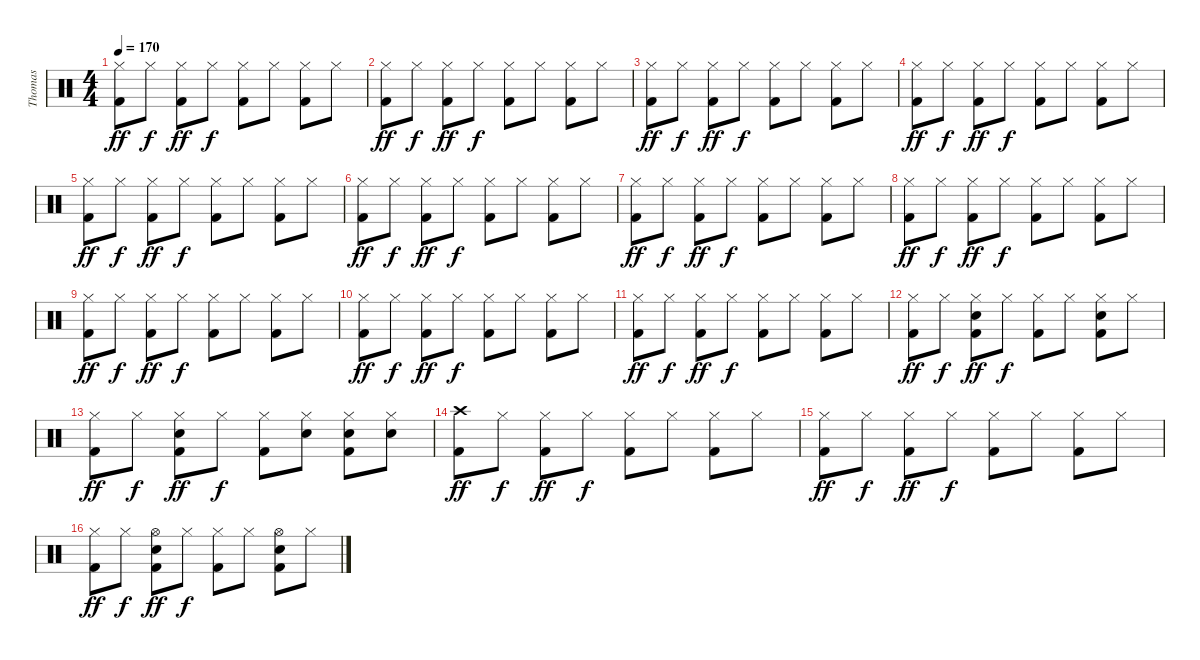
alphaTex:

\track ("Thomas" "Thomas") {instrument percussion}
\staff {score}
\articulation defaults
\ts (4 4)
\tempo 170
\clef neutral
\ks c
("Hi-Hat (closed)" "Kick (hit) 2").8{dy ff} "Hi-Hat (closed)".8{dy f} ("Hi-Hat (closed)" "Kick (hit) 2").8{dy ff} "Hi-Hat (closed)".8{dy f} ("Hi-Hat (closed)" "Kick (hit) 2").8 "Hi-Hat (closed)".8 ("Hi-Hat (closed)" "Kick (hit) 2").8 "Hi-Hat (closed)".8 |
("Hi-Hat (closed)" "Kick (hit) 2").8{dy ff} "Hi-Hat (closed)".8{dy f} ("Hi-Hat (closed)" "Kick (hit) 2").8{dy ff} "Hi-Hat (closed)".8{dy f} ("Hi-Hat (closed)" "Kick (hit) 2").8 "Hi-Hat (closed)".8 ("Hi-Hat (closed)" "Kick (hit) 2").8 "Hi-Hat (closed)".8 |
("Hi-Hat (closed)" "Kick (hit) 2").8{dy ff} "Hi-Hat (closed)".8{dy f} ("Hi-Hat (closed)" "Kick (hit) 2").8{dy ff} "Hi-Hat (closed)".8{dy f} ("Hi-Hat (closed)" "Kick (hit) 2").8 "Hi-Hat (closed)".8 ("Hi-Hat (closed)" "Kick (hit) 2").8 "Hi-Hat (closed)".8 |
("Hi-Hat (closed)" "Kick (hit) 2").8{dy ff} "Hi-Hat (closed)".8{dy f} ("Hi-Hat (closed)" "Kick (hit) 2").8{dy ff} "Hi-Hat (closed)".8{dy f} ("Hi-Hat (closed)" "Kick (hit) 2").8 "Hi-Hat (closed)".8 ("Hi-Hat (closed)" "Kick (hit) 2").8 "Hi-Hat (closed)".8 |
("Hi-Hat (closed)" "Kick (hit) 2").8{dy ff} "Hi-Hat (closed)".8{dy f} ("Hi-Hat (closed)" "Kick (hit) 2").8{dy ff} "Hi-Hat (closed)".8{dy f} ("Hi-Hat (closed)" "Kick (hit) 2").8 "Hi-Hat (closed)".8 ("Hi-Hat (closed)" "Kick (hit) 2").8 "Hi-Hat (closed)".8 |
("Hi-Hat (closed)" "Kick (hit) 2").8{dy ff} "Hi-Hat (closed)".8{dy f} ("Hi-Hat (closed)" "Kick (hit) 2").8{dy ff} "Hi-Hat (closed)".8{dy f} ("Hi-Hat (closed)" "Kick (hit) 2").8 "Hi-Hat (closed)".8 ("Hi-Hat (closed)" "Kick (hit) 2").8 "Hi-Hat (closed)".8 |
("Hi-Hat (closed)" "Kick (hit) 2").8{dy ff} "Hi-Hat (closed)".8{dy f} ("Hi-Hat (closed)" "Kick (hit) 2").8{dy ff} "Hi-Hat (closed)".8{dy f} ("Hi-Hat (closed)" "Kick (hit) 2").8 "Hi-Hat (closed)".8 ("Hi-Hat (closed)" "Kick (hit) 2").8 "Hi-Hat (closed)".8 |
("Hi-Hat (closed)" "Kick (hit) 2").8{dy ff} "Hi-Hat (closed)".8{dy f} ("Hi-Hat (closed)" "Kick (hit) 2").8{dy ff} "Hi-Hat (closed)".8{dy f} ("Hi-Hat (closed)" "Kick (hit) 2").8 "Hi-Hat (closed)".8 ("Hi-Hat (closed)" "Kick (hit) 2").8 "Hi-Hat (closed)".8 |
("Hi-Hat (closed)" "Kick (hit) 2").8{dy ff} "Hi-Hat (closed)".8{dy f} ("Hi-Hat (closed)" "Kick (hit) 2").8{dy ff} "Hi-Hat (closed)".8{dy f} ("Hi-Hat (closed)" "Kick (hit) 2").8 "Hi-Hat (closed)".8 ("Hi-Hat (closed)" "Kick (hit) 2").8 "Hi-Hat (closed)".8 |
("Hi-Hat (closed)" "Kick (hit) 2").8{dy ff} "Hi-Hat (closed)".8{dy f} ("Hi-Hat (closed)" "Kick (hit) 2").8{dy ff} "Hi-Hat (closed)".8{dy f} ("Hi-Hat (closed)" "Kick (hit) 2").8 "Hi-Hat (closed)".8 ("Hi-Hat (closed)" "Kick (hit) 2").8 "Hi-Hat (closed)".8 |
("Hi-Hat (closed)" "Kick (hit) 2").8{dy ff} "Hi-Hat (closed)".8{dy f} ("Hi-Hat (closed)" "Kick (hit) 2").8{dy ff} "Hi-Hat (closed)".8{dy f} ("Hi-Hat (closed)" "Kick (hit) 2").8 "Hi-Hat (closed)".8 ("Hi-Hat (closed)" "Kick (hit) 2").8 "Hi-Hat (closed)".8 |
("Hi-Hat (closed)" "Kick (hit) 2").8{dy ff} "Hi-Hat (closed)".8{dy f} ("Hi-Hat (closed)" "Snare (hit) 2" "Kick (hit) 2").8{dy ff} "Hi-Hat (closed)".8{dy f} ("Hi-Hat (closed)" "Kick (hit) 2").8 "Hi-Hat (closed)".8 ("Hi-Hat (closed)" "Snare (hit) 2" "Kick (hit) 2").8 "Hi-Hat (closed)".8 |
("Hi-Hat (closed)" "Kick (hit) 2").8{dy ff} "Hi-Hat (closed)".8{dy f} ("Hi-Hat (closed)" "Snare (hit) 2" "Kick (hit) 2").8{dy ff} "Hi-Hat (closed)".8{dy f} ("Hi-Hat (closed)" "Kick (hit) 2").8 ("Hi-Hat (closed)" "Snare (hit) 2").8 ("Hi-Hat (closed)" "Snare (hit) 2" "Kick (hit) 2").8 ("Hi-Hat (closed)" "Snare (hit) 2").8 |
("Crash high (hit)" "Kick (hit) 2").8{dy ff} "Hi-Hat (closed)".8{dy f} ("Hi-Hat (closed)" "Kick (hit) 2").8{dy ff} "Hi-Hat (closed)".8{dy f} ("Hi-Hat (closed)" "Kick (hit) 2").8 "Hi-Hat (closed)".8 ("Hi-Hat (closed)" "Kick (hit) 2").8 "Hi-Hat (closed)".8 |
("Hi-Hat (closed)" "Kick (hit) 2").8{dy ff} "Hi-Hat (closed)".8{dy f} ("Hi-Hat (closed)" "Kick (hit) 2").8{dy ff} "Hi-Hat (closed)".8{dy f} ("Hi-Hat (closed)" "Kick (hit) 2").8 "Hi-Hat (closed)".8 ("Hi-Hat (closed)" "Kick (hit) 2").8 "Hi-Hat (closed)".8 |
("Hi-Hat (closed)" "Kick (hit) 2").8{dy ff} "Hi-Hat (closed)".8{dy f} ("Hi-Hat (open)" "Snare (hit) 2" "Kick (hit) 2").8{dy ff} "Hi-Hat (closed)".8{dy f} ("Hi-Hat (closed)" "Kick (hit) 2").8 "Hi-Hat (closed)".8 ("Hi-Hat (open)" "Snare (hit) 2" "Kick (hit) 2").8 "Hi-Hat (closed)".8
